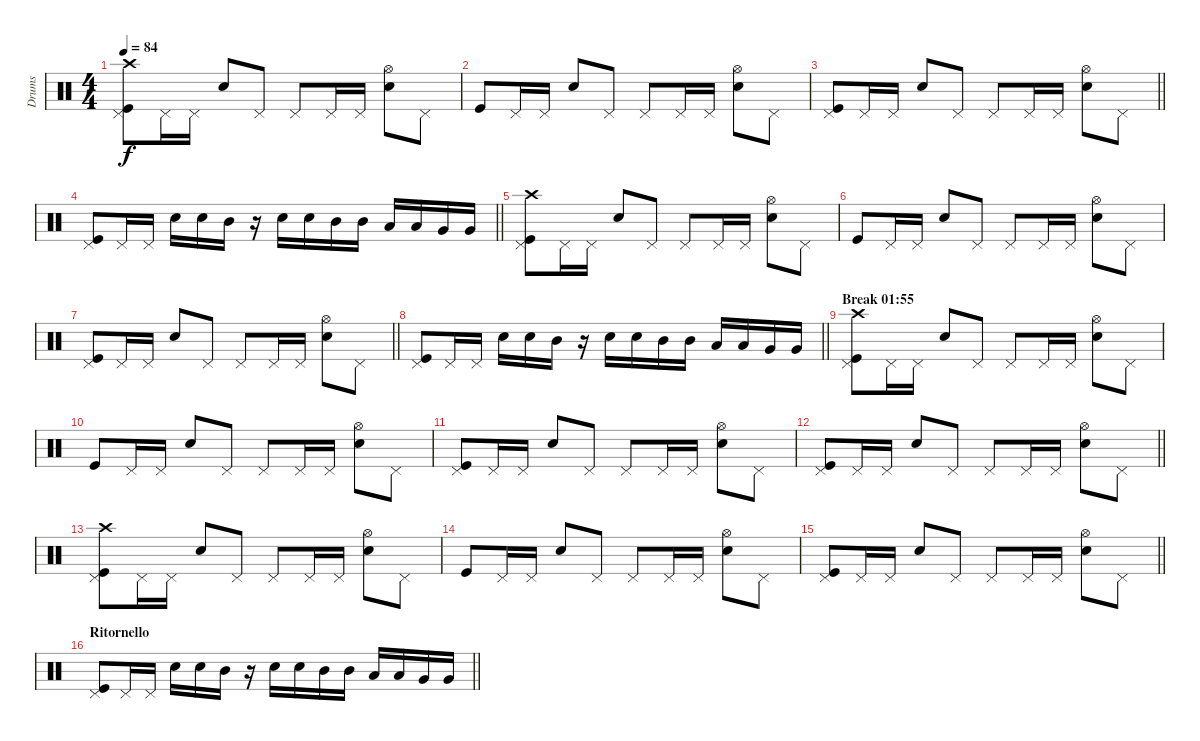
\track ("Drums" "Drums") {instrument percussion}
\staff {score}
\articulation defaults
\ts (4 4)
\tempo 84
\clef neutral
\ks c
("Pedal Hi-Hat (hit)" "Kick (hit)" "Crash high (hit)").8{dy f} "Pedal Hi-Hat (hit)".16 "Pedal Hi-Hat (hit)".16 "Snare (hit) 2".8 "Pedal Hi-Hat (hit)".8 "Pedal Hi-Hat (hit)".8 "Pedal Hi-Hat (hit)".16 "Pedal Hi-Hat (hit)".16 ("Hi-Hat (open)" "Snare (hit) 2").8 "Pedal Hi-Hat (hit)".8 |
"Kick (hit)".8 "Pedal Hi-Hat (hit)".16 "Pedal Hi-Hat (hit)".16 "Snare (hit) 2".8 "Pedal Hi-Hat (hit)".8 "Pedal Hi-Hat (hit)".8 "Pedal Hi-Hat (hit)".16 "Pedal Hi-Hat (hit)".16 ("Hi-Hat (open)" "Snare (hit) 2").8 "Pedal Hi-Hat (hit)".8 |
\barLineRight lightlight
("Pedal Hi-Hat (hit)" "Kick (hit)").8 "Pedal Hi-Hat (hit)".16 "Pedal Hi-Hat (hit)".16 "Snare (hit) 2".8 "Pedal Hi-Hat (hit)".8 "Pedal Hi-Hat (hit)".8 "Pedal Hi-Hat (hit)".16 "Pedal Hi-Hat (hit)".16 ("Hi-Hat (open)" "Snare (hit) 2").8 "Pedal Hi-Hat (hit)".8 |
\barLineRight lightlight
("Pedal Hi-Hat (hit)" "Kick (hit)").8 "Pedal Hi-Hat (hit)".16 "Pedal Hi-Hat (hit)".16 "Snare (hit) 2".16 "Snare (hit) 2".16 "Mid Tom (hit)".16 r.16 "Snare (hit) 2".16 "Snare (hit) 2".16 "Mid Tom (hit)".16 "Mid Tom (hit)".16 "Low Tom (hit)".16 "Low Tom (hit)".16 "Very Low Tom (hit)".16 "Very Low Tom (hit)".16 |
("Pedal Hi-Hat (hit)" "Kick (hit)" "Crash high (hit)").8 "Pedal Hi-Hat (hit)".16 "Pedal Hi-Hat (hit)".16 "Snare (hit) 2".8 "Pedal Hi-Hat (hit)".8 "Pedal Hi-Hat (hit)".8 "Pedal Hi-Hat (hit)".16 "Pedal Hi-Hat (hit)".16 ("Hi-Hat (open)" "Snare (hit) 2").8 "Pedal Hi-Hat (hit)".8 |
"Kick (hit)".8 "Pedal Hi-Hat (hit)".16 "Pedal Hi-Hat (hit)".16 "Snare (hit) 2".8 "Pedal Hi-Hat (hit)".8 "Pedal Hi-Hat (hit)".8 "Pedal Hi-Hat (hit)".16 "Pedal Hi-Hat (hit)".16 ("Hi-Hat (open)" "Snare (hit) 2").8 "Pedal Hi-Hat (hit)".8 |
\barLineRight lightlight
("Pedal Hi-Hat (hit)" "Kick (hit)").8 "Pedal Hi-Hat (hit)".16 "Pedal Hi-Hat (hit)".16 "Snare (hit) 2".8 "Pedal Hi-Hat (hit)".8 "Pedal Hi-Hat (hit)".8 "Pedal Hi-Hat (hit)".16 "Pedal Hi-Hat (hit)".16 ("Hi-Hat (open)" "Snare (hit) 2").8 "Pedal Hi-Hat (hit)".8 |
\barLineRight lightlight
("Pedal Hi-Hat (hit)" "Kick (hit)").8 "Pedal Hi-Hat (hit)".16 "Pedal Hi-Hat (hit)".16 "Snare (hit) 2".16 "Snare (hit) 2".16 "Mid Tom (hit)".16 r.16 "Snare (hit) 2".16 "Snare (hit) 2".16 "Mid Tom (hit)".16 "Mid Tom (hit)".16 "Low Tom (hit)".16 "Low Tom (hit)".16 "Very Low Tom (hit)".16 "Very Low Tom (hit)".16 |
\section ("" "Break 01:55")
("Pedal Hi-Hat (hit)" "Kick (hit)" "Crash high (hit)").8 "Pedal Hi-Hat (hit)".16 "Pedal Hi-Hat (hit)".16 "Snare (hit) 2".8 "Pedal Hi-Hat (hit)".8 "Pedal Hi-Hat (hit)".8 "Pedal Hi-Hat (hit)".16 "Pedal Hi-Hat (hit)".16 ("Hi-Hat (open)" "Snare (hit) 2").8 "Pedal Hi-Hat (hit)".8 |
"Kick (hit)".8 "Pedal Hi-Hat (hit)".16 "Pedal Hi-Hat (hit)".16 "Snare (hit) 2".8 "Pedal Hi-Hat (hit)".8 "Pedal Hi-Hat (hit)".8 "Pedal Hi-Hat (hit)".16 "Pedal Hi-Hat (hit)".16 ("Hi-Hat (open)" "Snare (hit) 2").8 "Pedal Hi-Hat (hit)".8 |
("Pedal Hi-Hat (hit)" "Kick (hit)").8 "Pedal Hi-Hat (hit)".16 "Pedal Hi-Hat (hit)".16 "Snare (hit) 2".8 "Pedal Hi-Hat (hit)".8 "Pedal Hi-Hat (hit)".8 "Pedal Hi-Hat (hit)".16 "Pedal Hi-Hat (hit)".16 ("Hi-Hat (open)" "Snare (hit) 2").8 "Pedal Hi-Hat (hit)".8 |
\barLineRight lightlight
("Pedal Hi-Hat (hit)" "Kick (hit)").8 "Pedal Hi-Hat (hit)".16 "Pedal Hi-Hat (hit)".16 "Snare (hit) 2".8 "Pedal Hi-Hat (hit)".8 "Pedal Hi-Hat (hit)".8 "Pedal Hi-Hat (hit)".16 "Pedal Hi-Hat (hit)".16 ("Hi-Hat (open)" "Snare (hit) 2").8 "Pedal Hi-Hat (hit)".8 |
("Pedal Hi-Hat (hit)" "Kick (hit)" "Crash high (hit)").8 "Pedal Hi-Hat (hit)".16 "Pedal Hi-Hat (hit)".16 "Snare (hit) 2".8 "Pedal Hi-Hat (hit)".8 "Pedal Hi-Hat (hit)".8 "Pedal Hi-Hat (hit)".16 "Pedal Hi-Hat (hit)".16 ("Hi-Hat (open)" "Snare (hit) 2").8 "Pedal Hi-Hat (hit)".8 |
"Kick (hit)".8 "Pedal Hi-Hat (hit)".16 "Pedal Hi-Hat (hit)".16 "Snare (hit) 2".8 "Pedal Hi-Hat (hit)".8 "Pedal Hi-Hat (hit)".8 "Pedal Hi-Hat (hit)".16 "Pedal Hi-Hat (hit)".16 ("Hi-Hat (open)" "Snare (hit) 2").8 "Pedal Hi-Hat (hit)".8 |
\barLineRight lightlight
("Pedal Hi-Hat (hit)" "Kick (hit)").8 "Pedal Hi-Hat (hit)".16 "Pedal Hi-Hat (hit)".16 "Snare (hit) 2".8 "Pedal Hi-Hat (hit)".8 "Pedal Hi-Hat (hit)".8 "Pedal Hi-Hat (hit)".16 "Pedal Hi-Hat (hit)".16 ("Hi-Hat (open)" "Snare (hit) 2").8 "Pedal Hi-Hat (hit)".8 |
\section ("" "Ritornello")
\barLineRight lightlight
("Pedal Hi-Hat (hit)" "Kick (hit)").8 "Pedal Hi-Hat (hit)".16 "Pedal Hi-Hat (hit)".16 "Snare (hit) 2".16 "Snare (hit) 2".16 "Mid Tom (hit)".16 r.16 "Snare (hit) 2".16 "Snare (hit) 2".16 "Mid Tom (hit)".16 "Mid Tom (hit)".16 "Low Tom (hit)".16 "Low Tom (hit)".16 "Very Low Tom (hit)".16 "Very Low Tom (hit)".16
